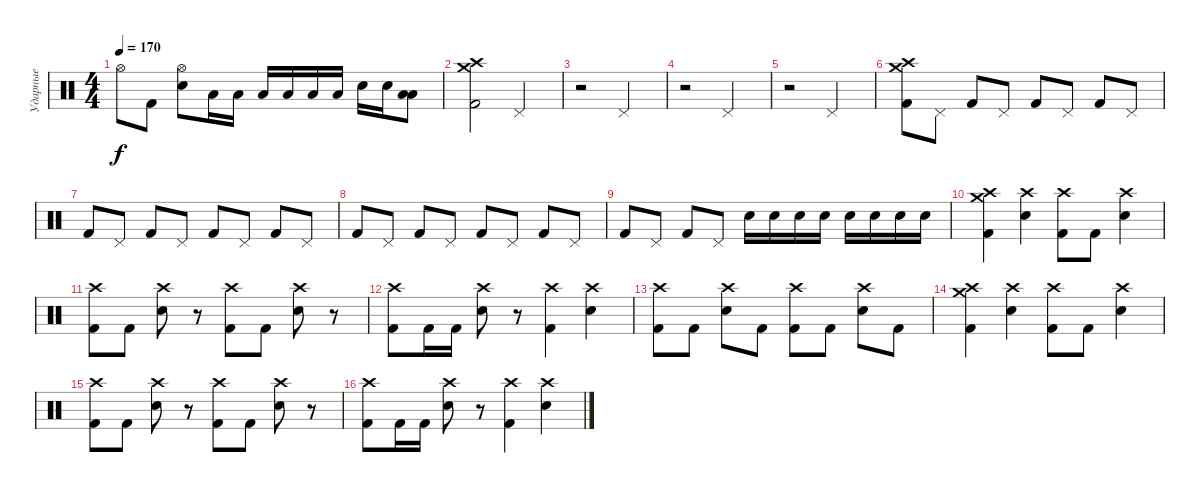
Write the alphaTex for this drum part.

\track ("Ударные" "Ударные") {instrument percussion}
\staff {score}
\articulation defaults
\ts (4 4)
\tempo 170
\clef neutral
\ks c "Hi-Hat (open)".8{dy f} "Kick (hit) 2".8
("Hi-Hat (open)" "Electric Snare (hit)").8 "Low Tom (hit)".16 "Low Tom (hit)".16 "Low Floor Tom (hit)".16 "Low Floor Tom (hit)".16 "Low Tom (hit)".16 "Low Tom (hit)".16 "Electric Snare (hit)".16 "Electric Snare (hit)".16 ("Low Tom (hit)" "Low Floor Tom (hit)").8 |
("Crash medium (hit)" "Crash high (hit)" "Kick (hit) 2").2 "Pedal Hi-Hat (hit)".2 |
r.2 "Pedal Hi-Hat (hit)".2 |
r.2 "Pedal Hi-Hat (hit)".2 |
r.2 "Pedal Hi-Hat (hit)".2 |
("Crash medium (hit)" "Crash high (hit)" "Kick (hit) 2").8 "Pedal Hi-Hat (hit)".8 "Kick (hit) 2".8 "Pedal Hi-Hat (hit)".8 "Kick (hit) 2".8 "Pedal Hi-Hat (hit)".8 "Kick (hit) 2".8 "Pedal Hi-Hat (hit)".8 |
"Kick (hit) 2".8 "Pedal Hi-Hat (hit)".8 "Kick (hit) 2".8 "Pedal Hi-Hat (hit)".8 "Kick (hit) 2".8 "Pedal Hi-Hat (hit)".8 "Kick (hit) 2".8 "Pedal Hi-Hat (hit)".8 |
"Kick (hit) 2".8 "Pedal Hi-Hat (hit)".8 "Kick (hit) 2".8 "Pedal Hi-Hat (hit)".8 "Kick (hit) 2".8 "Pedal Hi-Hat (hit)".8 "Kick (hit) 2".8 "Pedal Hi-Hat (hit)".8 |
"Kick (hit) 2".8 "Pedal Hi-Hat (hit)".8 "Kick (hit) 2".8 "Pedal Hi-Hat (hit)".8 "Electric Snare (hit)".16 "Electric Snare (hit)".16 "Electric Snare (hit)".16 "Electric Snare (hit)".16 "Electric Snare (hit)".16 "Electric Snare (hit)".16 "Electric Snare (hit)".16 "Electric Snare (hit)".16 |
("Crash medium (hit)" "Crash high (hit)" "Kick (hit) 2").4 ("Crash high (hit)" "Electric Snare (hit)").4 ("Crash high (hit)" "Kick (hit) 2").8 "Kick (hit) 2".8 ("Crash high (hit)" "Electric Snare (hit)").4 |
("Crash high (hit)" "Kick (hit) 2").8 "Kick (hit) 2".8 ("Crash high (hit)" "Electric Snare (hit)").8 r.8 ("Crash high (hit)" "Kick (hit) 2").8 "Kick (hit) 2".8 ("Crash high (hit)" "Electric Snare (hit)").8 r.8 |
("Crash high (hit)" "Kick (hit) 2").8 "Kick (hit) 2".16 "Kick (hit) 2".16 ("Crash high (hit)" "Electric Snare (hit)").8 r.8 ("Crash high (hit)" "Kick (hit) 2").4 ("Crash high (hit)" "Electric Snare (hit)").4 |
("Crash high (hit)" "Kick (hit) 2").8 "Kick (hit) 2".8 ("Crash high (hit)" "Electric Snare (hit)").8 "Kick (hit) 2".8 ("Crash high (hit)" "Kick (hit) 2").8 "Kick (hit) 2".8 ("Crash high (hit)" "Electric Snare (hit)").8 "Kick (hit) 2".8 |
("Crash medium (hit)" "Crash high (hit)" "Kick (hit) 2").4 ("Crash high (hit)" "Electric Snare (hit)").4 ("Crash high (hit)" "Kick (hit) 2").8 "Kick (hit) 2".8 ("Crash high (hit)" "Electric Snare (hit)").4 |
("Crash high (hit)" "Kick (hit) 2").8 "Kick (hit) 2".8 ("Crash high (hit)" "Electric Snare (hit)").8 r.8 ("Crash high (hit)" "Kick (hit) 2").8 "Kick (hit) 2".8 ("Crash high (hit)" "Electric Snare (hit)").8 r.8 |
("Crash high (hit)" "Kick (hit) 2").8 "Kick (hit) 2".16 "Kick (hit) 2".16 ("Crash high (hit)" "Electric Snare (hit)").8 r.8 ("Crash high (hit)" "Kick (hit) 2").4 ("Crash high (hit)" "Electric Snare (hit)").4
